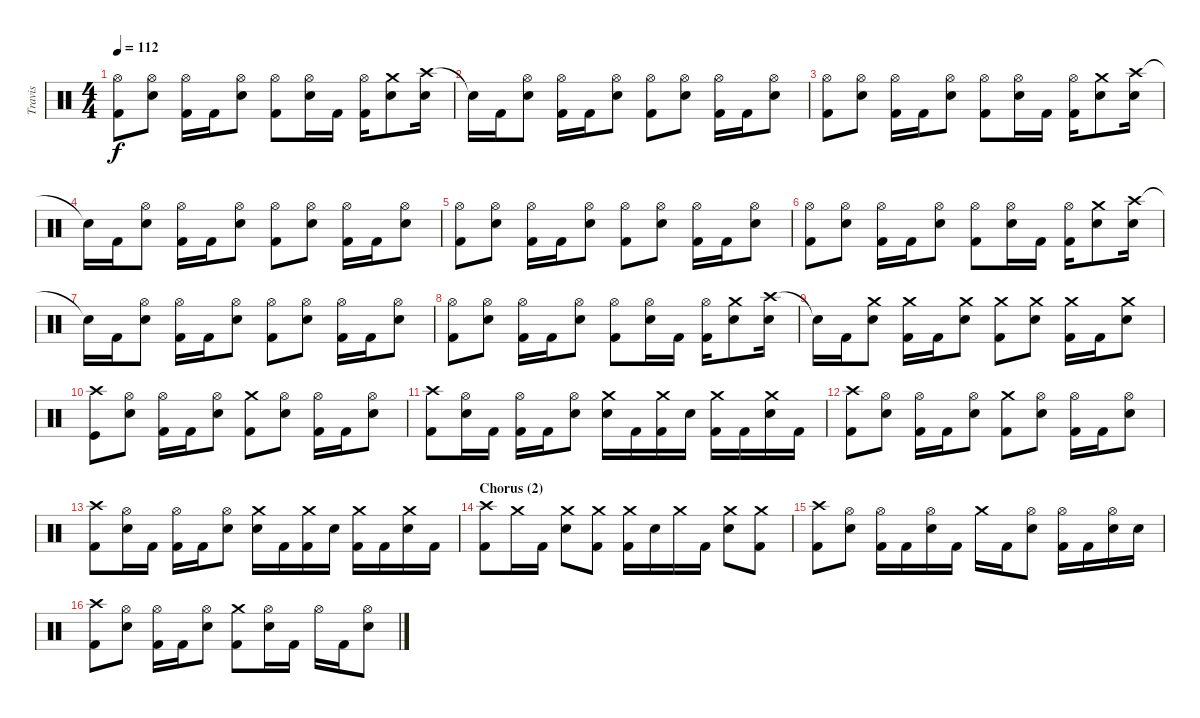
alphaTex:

\track ("Travis" "Travis") {instrument percussion}
\staff {score}
\articulation defaults
\ts (4 4)
\tempo 112
\clef neutral
\ks c
("Hi-Hat (open)" "Kick (hit) 2").8{dy f} ("Hi-Hat (open)" "Electric Snare (hit)").8 ("Hi-Hat (open)" "Kick (hit) 2").16 "Kick (hit) 2".16 ("Hi-Hat (open)" "Electric Snare (hit)").8 ("Hi-Hat (open)" "Kick (hit) 2").8 ("Hi-Hat (open)" "Electric Snare (hit)").16 "Kick (hit) 2".16 ("Hi-Hat (open)" "Kick (hit) 2").16 ("Crash medium (hit)" "Electric Snare (hit)").8 ("Crash high (hit)" "Electric Snare (hit)").16 |
"Snare (hit)"{t}.16 "Kick (hit) 2".16 ("Hi-Hat (open)" "Electric Snare (hit)").8 ("Hi-Hat (open)" "Kick (hit) 2").16 "Kick (hit) 2".16 ("Hi-Hat (open)" "Electric Snare (hit)").8 ("Hi-Hat (open)" "Kick (hit) 2").8 ("Hi-Hat (open)" "Electric Snare (hit)").8 ("Hi-Hat (open)" "Kick (hit) 2").16 "Kick (hit) 2".16 ("Hi-Hat (open)" "Electric Snare (hit)").8 |
("Hi-Hat (open)" "Kick (hit) 2").8 ("Hi-Hat (open)" "Electric Snare (hit)").8 ("Hi-Hat (open)" "Kick (hit) 2").16 "Kick (hit) 2".16 ("Hi-Hat (open)" "Electric Snare (hit)").8 ("Hi-Hat (open)" "Kick (hit) 2").8 ("Hi-Hat (open)" "Electric Snare (hit)").16 "Kick (hit) 2".16 ("Hi-Hat (open)" "Kick (hit) 2").16 ("Crash medium (hit)" "Electric Snare (hit)").8 ("Crash high (hit)" "Electric Snare (hit)").16 |
"Snare (hit)"{t}.16 "Kick (hit) 2".16 ("Hi-Hat (open)" "Electric Snare (hit)").8 ("Hi-Hat (open)" "Kick (hit) 2").16 "Kick (hit) 2".16 ("Hi-Hat (open)" "Electric Snare (hit)").8 ("Hi-Hat (open)" "Kick (hit) 2").8 ("Hi-Hat (open)" "Electric Snare (hit)").8 ("Hi-Hat (open)" "Kick (hit) 2").16 "Kick (hit) 2".16 ("Hi-Hat (open)" "Electric Snare (hit)").8 |
("Hi-Hat (open)" "Kick (hit) 2").8 ("Hi-Hat (open)" "Electric Snare (hit)").8 ("Hi-Hat (open)" "Kick (hit) 2").16 "Kick (hit) 2".16 ("Hi-Hat (open)" "Electric Snare (hit)").8 ("Hi-Hat (open)" "Kick (hit) 2").8 ("Hi-Hat (open)" "Electric Snare (hit)").8 ("Hi-Hat (open)" "Kick (hit) 2").16 "Kick (hit) 2".16 ("Hi-Hat (open)" "Electric Snare (hit)").8 |
("Hi-Hat (open)" "Kick (hit) 2").8 ("Hi-Hat (open)" "Electric Snare (hit)").8 ("Hi-Hat (open)" "Kick (hit) 2").16 "Kick (hit) 2".16 ("Hi-Hat (open)" "Electric Snare (hit)").8 ("Hi-Hat (open)" "Kick (hit) 2").8 ("Hi-Hat (open)" "Electric Snare (hit)").16 "Kick (hit) 2".16 ("Hi-Hat (open)" "Kick (hit) 2").16 ("Crash medium (hit)" "Electric Snare (hit)").8 ("Crash high (hit)" "Electric Snare (hit)").16 |
"Snare (hit)"{t}.16 "Kick (hit) 2".16 ("Hi-Hat (open)" "Electric Snare (hit)").8 ("Hi-Hat (open)" "Kick (hit) 2").16 "Kick (hit) 2".16 ("Hi-Hat (open)" "Electric Snare (hit)").8 ("Hi-Hat (open)" "Kick (hit) 2").8 ("Hi-Hat (open)" "Electric Snare (hit)").8 ("Hi-Hat (open)" "Kick (hit) 2").16 "Kick (hit) 2".16 ("Hi-Hat (open)" "Electric Snare (hit)").8 |
("Hi-Hat (open)" "Kick (hit) 2").8 ("Hi-Hat (open)" "Electric Snare (hit)").8 ("Hi-Hat (open)" "Kick (hit) 2").16 "Kick (hit) 2".16 ("Hi-Hat (open)" "Electric Snare (hit)").8 ("Hi-Hat (open)" "Kick (hit) 2").8 ("Hi-Hat (open)" "Electric Snare (hit)").16 "Kick (hit) 2".16 ("Hi-Hat (open)" "Kick (hit) 2").16 ("Crash medium (hit)" "Electric Snare (hit)").8 ("Crash high (hit)" "Electric Snare (hit)").16 |
"Snare (hit)"{t}.16 "Kick (hit) 2".16 ("Crash medium (hit)" "Electric Snare (hit)").8 ("Crash medium (hit)" "Kick (hit) 2").16 "Kick (hit) 2".16 ("Crash medium (hit)" "Electric Snare (hit)").8 ("Crash medium (hit)" "Kick (hit) 2").8 ("Crash medium (hit)" "Electric Snare (hit)").8 ("Crash medium (hit)" "Kick (hit) 2").16 "Kick (hit) 2".16 ("Crash medium (hit)" "Electric Snare (hit)").8 |
("Crash high (hit)" "Kick (hit)").8 ("Hi-Hat (open)" "Electric Snare (hit)").8 ("Hi-Hat (open)" "Kick (hit) 2").16 "Kick (hit) 2".16 ("Hi-Hat (open)" "Electric Snare (hit)").8 ("Crash medium (hit)" "Kick (hit) 2").8 ("Hi-Hat (open)" "Electric Snare (hit)").8 ("Hi-Hat (open)" "Kick (hit) 2").16 "Kick (hit) 2".16 ("Hi-Hat (open)" "Electric Snare (hit)").8 |
("Crash high (hit)" "Kick (hit) 2").8 ("Hi-Hat (open)" "Electric Snare (hit)").16 "Kick (hit) 2".16 ("Hi-Hat (open)" "Kick (hit) 2").16 "Kick (hit) 2".16 ("Hi-Hat (open)" "Electric Snare (hit)").8 ("Crash medium (hit)" "Electric Snare (hit)").16 "Kick (hit) 2".16 ("Crash medium (hit)" "Kick (hit) 2").16 "Electric Snare (hit)".16 ("Crash medium (hit)" "Kick (hit) 2").16 "Kick (hit) 2".16 ("Crash medium (hit)" "Electric Snare (hit)").16 "Kick (hit) 2".16 |
("Crash high (hit)" "Kick (hit) 2").8 ("Hi-Hat (open)" "Electric Snare (hit)").8 ("Hi-Hat (open)" "Kick (hit) 2").16 "Kick (hit) 2".16 ("Hi-Hat (open)" "Electric Snare (hit)").8 ("Crash medium (hit)" "Kick (hit) 2").8 ("Hi-Hat (open)" "Electric Snare (hit)").8 ("Hi-Hat (open)" "Kick (hit) 2").16 "Kick (hit) 2".16 ("Hi-Hat (open)" "Electric Snare (hit)").8 |
("Crash high (hit)" "Kick (hit) 2").8 ("Hi-Hat (open)" "Electric Snare (hit)").16 "Kick (hit) 2".16 ("Hi-Hat (open)" "Kick (hit) 2").16 "Kick (hit) 2".16 ("Hi-Hat (open)" "Electric Snare (hit)").8 ("Crash medium (hit)" "Electric Snare (hit)").16 "Kick (hit) 2".16 ("Crash medium (hit)" "Kick (hit) 2").16 "Electric Snare (hit)".16 ("Crash medium (hit)" "Kick (hit) 2").16 "Kick (hit) 2".16 ("Crash medium (hit)" "Electric Snare (hit)").16 "Kick (hit) 2".16 |
\section ("" "Chorus (2)")
("Crash high (hit)" "Kick (hit) 2").8 "Crash medium (hit)".16 "Kick (hit) 2".16 ("Crash medium (hit)" "Electric Snare (hit)").8 ("Crash medium (hit)" "Kick (hit) 2").8 ("Crash medium (hit)" "Kick (hit) 2").16 "Electric Snare (hit)".16 "Crash medium (hit)".16 "Kick (hit) 2".16 ("Crash medium (hit)" "Electric Snare (hit)").8 ("Crash medium (hit)" "Kick (hit) 2").8 |
("Crash high (hit)" "Kick (hit) 2").8 ("Hi-Hat (open)" "Electric Snare (hit)").8 ("Hi-Hat (open)" "Kick (hit) 2").16 "Kick (hit) 2".16 ("Hi-Hat (open)" "Electric Snare (hit)").16 "Kick (hit) 2".16 "Crash medium (hit)".16 "Kick (hit) 2".16 ("Hi-Hat (open)" "Electric Snare (hit)").8 ("Hi-Hat (open)" "Kick (hit) 2").16 "Kick (hit) 2".16 ("Hi-Hat (open)" "Electric Snare (hit)").16 "Electric Snare (hit)".16 |
("Crash high (hit)" "Kick (hit) 2").8 ("Hi-Hat (open)" "Electric Snare (hit)").8 ("Hi-Hat (open)" "Kick (hit) 2").16 "Kick (hit) 2".16 ("Hi-Hat (open)" "Electric Snare (hit)").8 ("Crash medium (hit)" "Kick (hit) 2").8 ("Hi-Hat (open)" "Electric Snare (hit)").16 "Kick (hit) 2".16 "Hi-Hat (open)".16 "Kick (hit) 2".16 ("Hi-Hat (open)" "Electric Snare (hit)").8
